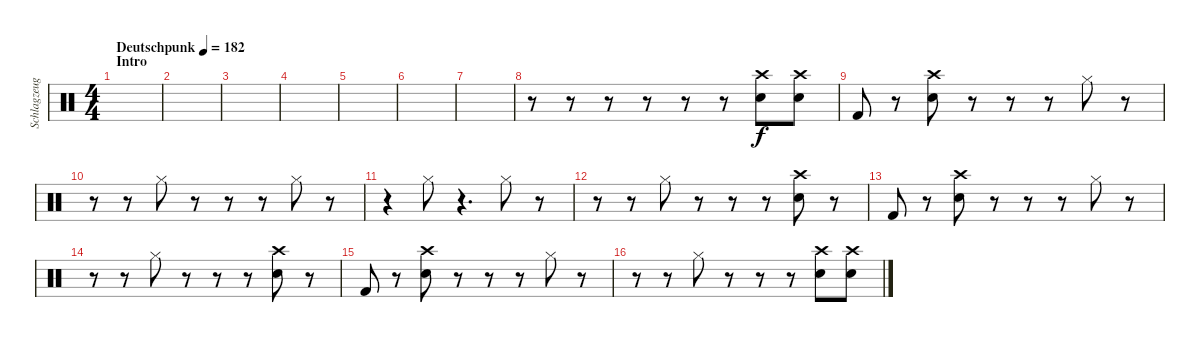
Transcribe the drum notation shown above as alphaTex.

\track ("Schlagzeug" "Schlagzeug") {instrument percussion}
\staff {score}
\articulation defaults
\ts (4 4)
\section ("" "Intro")
\tempo (182 "Deutschpunk")
\clef neutral
\ks c
|
|
|
|
|
|
|
r.8 r.8 r.8 r.8 r.8 r.8 ("Crash high (hit)" "Snare (hit) 2").8 ("Crash high (hit)" "Snare (hit) 2").8 |
"Kick (hit) 2".8 r.8 ("Crash high (hit)" "Snare (hit) 2").8 r.8 r.8 r.8 "Hi-Hat (closed)".8 r.8 |
r.8 r.8 "Hi-Hat (closed)".8 r.8 r.8 r.8 "Hi-Hat (closed)".8 r.8 |
r.4 "Hi-Hat (closed)".8 r.4{d} "Hi-Hat (closed)".8 r.8 |
r.8 r.8 "Hi-Hat (closed)".8 r.8 r.8 r.8 ("Crash high (hit)" "Snare (hit) 2").8 r.8 |
"Kick (hit) 2".8 r.8 ("Crash high (hit)" "Snare (hit) 2").8 r.8 r.8 r.8 "Hi-Hat (closed)".8 r.8 |
r.8 r.8 "Hi-Hat (closed)".8 r.8 r.8 r.8 ("Crash high (hit)" "Snare (hit) 2").8 r.8 |
"Kick (hit) 2".8 r.8 ("Crash high (hit)" "Snare (hit) 2").8 r.8 r.8 r.8 "Hi-Hat (closed)".8 r.8 |
r.8 r.8 "Hi-Hat (closed)".8 r.8 r.8 r.8 ("Crash high (hit)" "Snare (hit) 2").8 ("Crash high (hit)" "Snare (hit) 2").8
